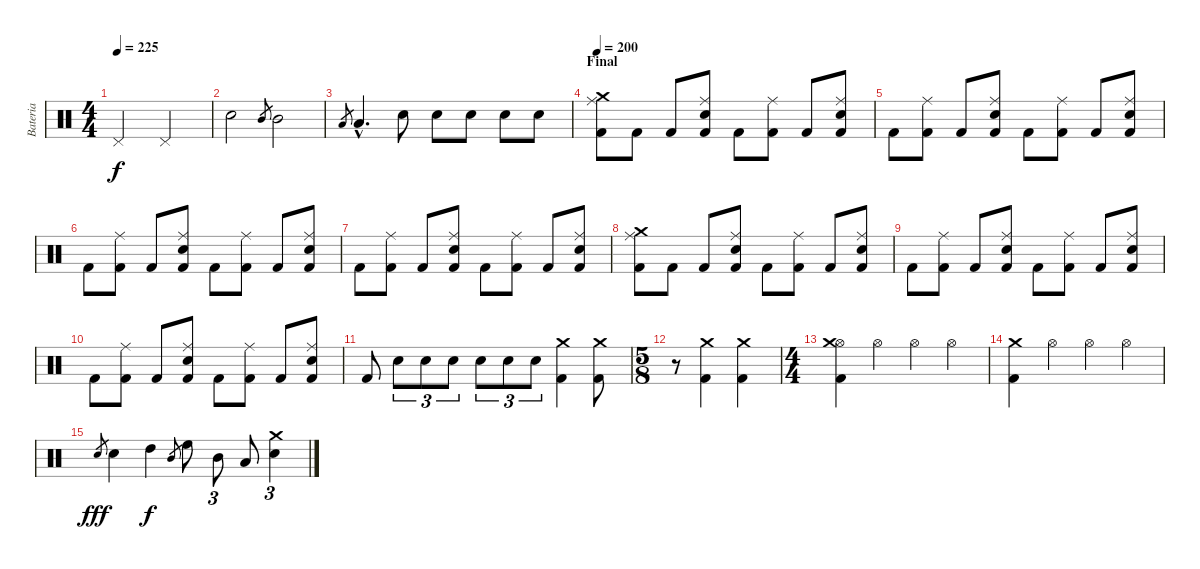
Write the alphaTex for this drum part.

\track ("Bateria" "Bateria") {instrument percussion}
\staff {score}
\articulation defaults
\ts (4 4)
\tempo 225
\clef neutral
\ks c "Pedal Hi-Hat (hit)".2{dy f} "Pedal Hi-Hat (hit)".2
|
"Snare (hit) 2".2 "Mid Tom (hit)".8{gr} "Mid Tom (hit)".2 |
"Low Tom (hit)".8{gr} "Low Tom (hit)"{hac}.4{d} "Snare (hit) 2".8 "Snare (hit) 2".8 "Snare (hit) 2".8 "Snare (hit) 2".8 "Snare (hit) 2".8 |
\section ("" "Final")
\tempo 200
("Crash medium (hit)" "Ride (middle)" "Kick (hit) 2").8 "Kick (hit) 2".8 "Kick (hit) 2".8 ("Ride (middle)" "Snare (hit) 2" "Kick (hit) 2").8 "Kick (hit) 2".8 ("Ride (middle)" "Kick (hit) 2").8 "Kick (hit) 2".8 ("Ride (middle)" "Snare (hit) 2" "Kick (hit) 2").8 |
"Kick (hit) 2".8 ("Ride (middle)" "Kick (hit) 2").8 "Kick (hit) 2".8 ("Ride (middle)" "Snare (hit) 2" "Kick (hit) 2").8 "Kick (hit) 2".8 ("Ride (middle)" "Kick (hit) 2").8 "Kick (hit) 2".8 ("Ride (middle)" "Snare (hit) 2" "Kick (hit) 2").8 |
"Kick (hit) 2".8 ("Ride (middle)" "Kick (hit) 2").8 "Kick (hit) 2".8 ("Ride (middle)" "Snare (hit) 2" "Kick (hit) 2").8 "Kick (hit) 2".8 ("Ride (middle)" "Kick (hit) 2").8 "Kick (hit) 2".8 ("Ride (middle)" "Snare (hit) 2" "Kick (hit) 2").8 |
"Kick (hit) 2".8 ("Ride (middle)" "Kick (hit) 2").8 "Kick (hit) 2".8 ("Ride (middle)" "Snare (hit) 2" "Kick (hit) 2").8 "Kick (hit) 2".8 ("Ride (middle)" "Kick (hit) 2").8 "Kick (hit) 2".8 ("Ride (middle)" "Snare (hit) 2" "Kick (hit) 2").8 |
("Crash medium (hit)" "Ride (middle)" "Kick (hit) 2").8 "Kick (hit) 2".8 "Kick (hit) 2".8 ("Ride (middle)" "Snare (hit) 2" "Kick (hit) 2").8 "Kick (hit) 2".8 ("Ride (middle)" "Kick (hit) 2").8 "Kick (hit) 2".8 ("Ride (middle)" "Snare (hit) 2" "Kick (hit) 2").8 |
"Kick (hit) 2".8 ("Ride (middle)" "Kick (hit) 2").8 "Kick (hit) 2".8 ("Ride (middle)" "Snare (hit) 2" "Kick (hit) 2").8 "Kick (hit) 2".8 ("Ride (middle)" "Kick (hit) 2").8 "Kick (hit) 2".8 ("Ride (middle)" "Snare (hit) 2" "Kick (hit) 2").8 |
"Kick (hit) 2".8 ("Ride (middle)" "Kick (hit) 2").8 "Kick (hit) 2".8 ("Ride (middle)" "Snare (hit) 2" "Kick (hit) 2").8 "Kick (hit) 2".8 ("Ride (middle)" "Kick (hit) 2").8 "Kick (hit) 2".8 ("Ride (middle)" "Snare (hit) 2" "Kick (hit) 2").8 |
"Kick (hit) 2".8 "Snare (hit) 2".8{tu (3 2)} "Snare (hit) 2".8{tu (3 2)} "Snare (hit) 2".8{tu (3 2)} "Snare (hit) 2".8{tu (3 2)} "Snare (hit) 2".8{tu (3 2)} "Snare (hit) 2".8{tu (3 2)} ("Crash medium (hit)" "Kick (hit) 2").4 ("Crash medium (hit)" "Kick (hit) 2").8 |
\ts (5 8)
r.8 ("Crash medium (hit)" "Kick (hit) 2").4 ("Crash medium (hit)" "Kick (hit) 2").4 |
\ts (4 4)
("Hi-Hat (open)" "Kick (hit) 2" "Crash medium (hit)").4 "Hi-Hat (open)".4 "Hi-Hat (open)".4 "Hi-Hat (open)".4 |
("Crash medium (hit)" "Kick (hit) 2").4 "Hi-Hat (open)".4 "Hi-Hat (open)".4 "Hi-Hat (open)".4 |
"Snare (hit) 2".8{gr dy fff} "Snare (hit) 2".4 "High Tom (hit)".4{dy f} "Mid Tom (hit)".8{gr} "High Floor Tom (hit)".8 "Mid Tom (hit)".8{tu (3 2)} "Low Tom (hit)".8 ("Snare (hit) 2" "Crash medium (hit)").4{tu (3 2)}
